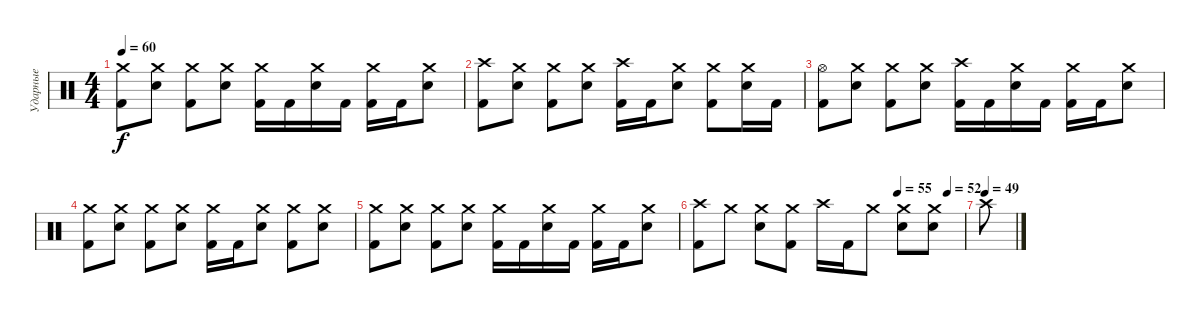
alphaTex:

\track ("Ударные" "Ударные") {instrument percussion}
\staff {score}
\articulation defaults
\ts (4 4)
\tempo 60
\clef neutral
\ks c
("Crash medium (hit)" "Kick (hit) 2").8{dy f} ("Crash medium (hit)" "Electric Snare (hit)").8 ("Crash medium (hit)" "Kick (hit) 2").8 ("Crash medium (hit)" "Electric Snare (hit)").8 ("Crash medium (hit)" "Kick (hit) 2").16 "Kick (hit) 2".16 ("Crash medium (hit)" "Electric Snare (hit)").16 "Kick (hit) 2".16 ("Crash medium (hit)" "Kick (hit) 2").16 "Kick (hit) 2".16 ("Crash medium (hit)" "Electric Snare (hit)").8 |
("Crash high (hit)" "Kick (hit) 2").8 ("Crash medium (hit)" "Electric Snare (hit)").8 ("Crash medium (hit)" "Kick (hit) 2").8 ("Crash medium (hit)" "Electric Snare (hit)").8 ("Crash high (hit)" "Kick (hit) 2").16 "Kick (hit) 2".16 ("Crash medium (hit)" "Electric Snare (hit)").8 ("Crash medium (hit)" "Kick (hit) 2").8 ("Crash medium (hit)" "Electric Snare (hit)").16 "Kick (hit) 2".16 |
("Hi-Hat (open)" "Kick (hit) 2").8 ("Crash medium (hit)" "Electric Snare (hit)").8 ("Crash medium (hit)" "Kick (hit) 2").8 ("Crash medium (hit)" "Electric Snare (hit)").8 ("Crash high (hit)" "Kick (hit) 2").16 "Kick (hit) 2".16 ("Crash medium (hit)" "Electric Snare (hit)").16 "Kick (hit) 2".16 ("Crash medium (hit)" "Kick (hit) 2").16 "Kick (hit) 2".16 ("Crash medium (hit)" "Electric Snare (hit)").8 |
("Crash medium (hit)" "Kick (hit) 2").8 ("Crash medium (hit)" "Electric Snare (hit)").8 ("Crash medium (hit)" "Kick (hit) 2").8 ("Crash medium (hit)" "Electric Snare (hit)").8 ("Crash medium (hit)" "Kick (hit) 2").16 "Kick (hit) 2".16 ("Crash medium (hit)" "Electric Snare (hit)").8 ("Crash medium (hit)" "Kick (hit) 2").8 ("Crash medium (hit)" "Electric Snare (hit)").8 |
("Crash medium (hit)" "Kick (hit) 2").8 ("Crash medium (hit)" "Electric Snare (hit)").8 ("Crash medium (hit)" "Kick (hit) 2").8 ("Crash medium (hit)" "Electric Snare (hit)").8 ("Crash medium (hit)" "Kick (hit) 2").16 "Kick (hit) 2".16 ("Crash medium (hit)" "Electric Snare (hit)").16 "Kick (hit) 2".16 ("Crash medium (hit)" "Kick (hit) 2").16 "Kick (hit) 2".16 ("Crash medium (hit)" "Electric Snare (hit)").8 |
\tempo (55 0.75)
\tempo (52 0.9375)
("Crash high (hit)" "Kick (hit) 2").8 "Crash medium (hit)".8 ("Crash medium (hit)" "Electric Snare (hit)").8 ("Crash medium (hit)" "Kick (hit) 2").8 "Crash high (hit)".16 "Kick (hit) 2".16 "Crash medium (hit)".8 ("Crash medium (hit)" "Electric Snare (hit)").8 ("Crash medium (hit)" "Electric Snare (hit)").8 |
\tempo (49)
"Crash high (hit)".8
